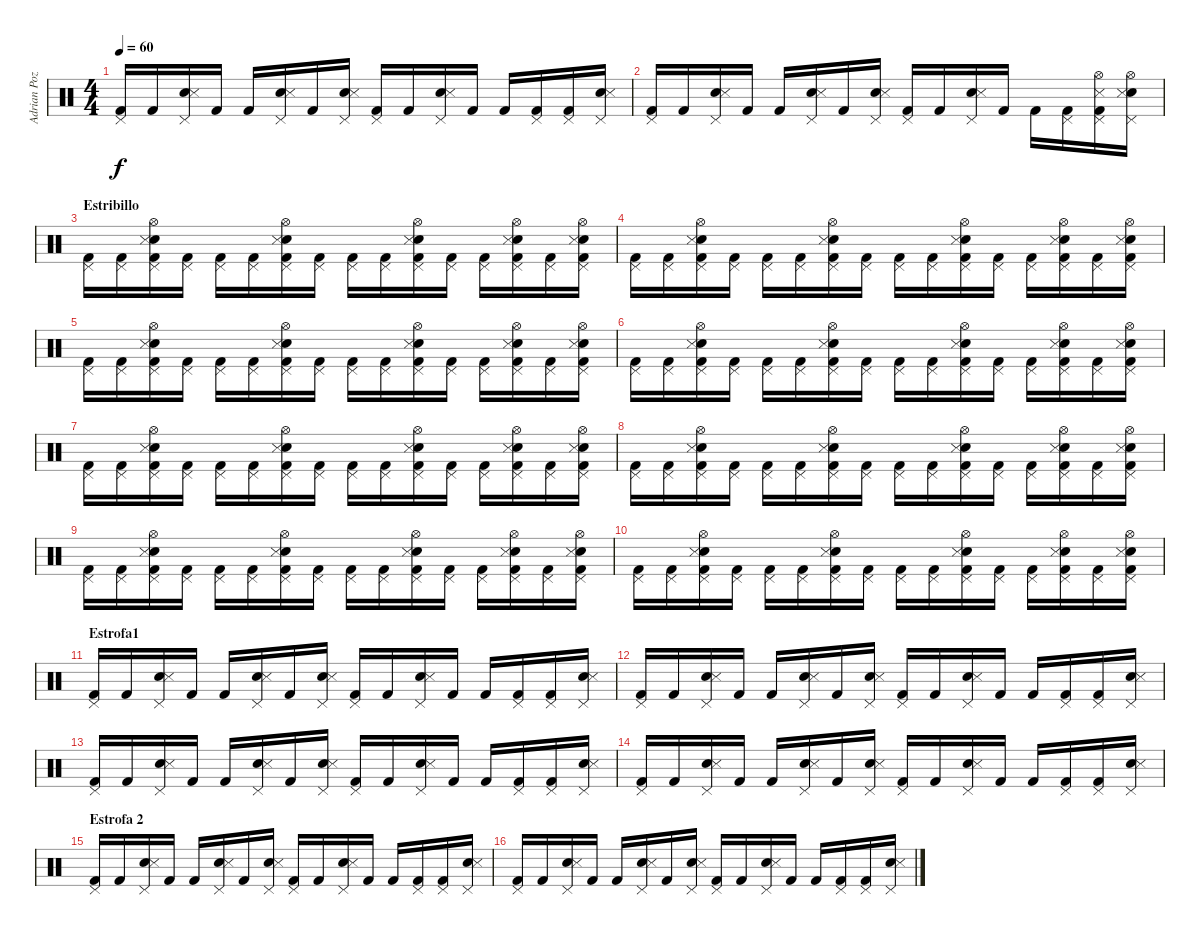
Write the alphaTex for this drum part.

\track ("Adrian Pozo" "Adrian Poz") {instrument percussion}
\staff {score}
\articulation defaults
\ts (4 4)
\tempo 60
\clef neutral
\ks c
("Kick (hit) 2" "Pedal Hi-Hat (hit)").16{dy f} "Kick (hit) 2".16 ("Snare (hit) 2" "Snare (side stick) 3" "Pedal Hi-Hat (hit)").16 "Kick (hit) 2".16 "Kick (hit) 2".16 ("Snare (hit) 2" "Snare (side stick) 3" "Pedal Hi-Hat (hit)").16 "Kick (hit) 2".16 ("Snare (hit) 2" "Snare (side stick) 3" "Pedal Hi-Hat (hit)").16 ("Kick (hit) 2" "Pedal Hi-Hat (hit)").16 "Kick (hit) 2".16 ("Snare (hit) 2" "Snare (side stick) 3" "Pedal Hi-Hat (hit)").16 "Kick (hit) 2".16 "Kick (hit) 2".16 ("Kick (hit) 2" "Pedal Hi-Hat (hit)").16 ("Kick (hit) 2" "Pedal Hi-Hat (hit)").16 ("Snare (hit) 2" "Snare (side stick) 3" "Pedal Hi-Hat (hit)").16 |
("Kick (hit) 2" "Pedal Hi-Hat (hit)").16 "Kick (hit) 2".16 ("Snare (hit) 2" "Snare (side stick) 3" "Pedal Hi-Hat (hit)").16 "Kick (hit) 2".16 "Kick (hit) 2".16 ("Snare (hit) 2" "Snare (side stick) 3" "Pedal Hi-Hat (hit)").16 "Kick (hit) 2".16 ("Snare (hit) 2" "Snare (side stick) 3" "Pedal Hi-Hat (hit)").16 ("Kick (hit) 2" "Pedal Hi-Hat (hit)").16 "Kick (hit) 2".16 ("Snare (hit) 2" "Snare (side stick) 3" "Pedal Hi-Hat (hit)").16 "Kick (hit) 2".16 "Kick (hit) 2".16 ("Kick (hit) 2" "Pedal Hi-Hat (hit)").16 ("Kick (hit) 2" "Snare (side stick) 3" "Hi-Hat (open)" "Pedal Hi-Hat (hit)").16 ("Snare (hit) 2" "Snare (side stick) 3" "Hi-Hat (open)" "Pedal Hi-Hat (hit)").16 |
\section ("" "Estribillo")
("Kick (hit) 2" "Pedal Hi-Hat (hit)").16 ("Kick (hit) 2" "Pedal Hi-Hat (hit)").16 ("Snare (hit) 2" "Kick (hit) 2" "Snare (side stick) 3" "Hi-Hat (open)" "Pedal Hi-Hat (hit)").16 ("Kick (hit) 2" "Pedal Hi-Hat (hit)").16 ("Kick (hit) 2" "Pedal Hi-Hat (hit)").16 ("Kick (hit) 2" "Pedal Hi-Hat (hit)").16 ("Snare (hit) 2" "Kick (hit) 2" "Snare (side stick) 3" "Hi-Hat (open)" "Pedal Hi-Hat (hit)").16 ("Kick (hit) 2" "Pedal Hi-Hat (hit)").16 ("Kick (hit) 2" "Pedal Hi-Hat (hit)").16 ("Kick (hit) 2" "Pedal Hi-Hat (hit)").16 ("Snare (hit) 2" "Kick (hit) 2" "Snare (side stick) 3" "Hi-Hat (open)" "Pedal Hi-Hat (hit)").16 ("Kick (hit) 2" "Pedal Hi-Hat (hit)").16 ("Kick (hit) 2" "Pedal Hi-Hat (hit)").16 ("Snare (hit) 2" "Kick (hit) 2" "Snare (side stick) 3" "Hi-Hat (open)" "Pedal Hi-Hat (hit)").16 ("Kick (hit) 2" "Pedal Hi-Hat (hit)").16 ("Snare (hit) 2" "Kick (hit) 2" "Snare (side stick) 3" "Hi-Hat (open)" "Pedal Hi-Hat (hit)").16 |
("Kick (hit) 2" "Pedal Hi-Hat (hit)").16 ("Kick (hit) 2" "Pedal Hi-Hat (hit)").16 ("Snare (hit) 2" "Kick (hit) 2" "Snare (side stick) 3" "Hi-Hat (open)" "Pedal Hi-Hat (hit)").16 ("Kick (hit) 2" "Pedal Hi-Hat (hit)").16 ("Kick (hit) 2" "Pedal Hi-Hat (hit)").16 ("Kick (hit) 2" "Pedal Hi-Hat (hit)").16 ("Snare (hit) 2" "Kick (hit) 2" "Snare (side stick) 3" "Hi-Hat (open)" "Pedal Hi-Hat (hit)").16 ("Kick (hit) 2" "Pedal Hi-Hat (hit)").16 ("Kick (hit) 2" "Pedal Hi-Hat (hit)").16 ("Kick (hit) 2" "Pedal Hi-Hat (hit)").16 ("Snare (hit) 2" "Kick (hit) 2" "Snare (side stick) 3" "Hi-Hat (open)" "Pedal Hi-Hat (hit)").16 ("Kick (hit) 2" "Pedal Hi-Hat (hit)").16 ("Kick (hit) 2" "Pedal Hi-Hat (hit)").16 ("Snare (hit) 2" "Kick (hit) 2" "Snare (side stick) 3" "Hi-Hat (open)" "Pedal Hi-Hat (hit)").16 ("Kick (hit) 2" "Pedal Hi-Hat (hit)").16 ("Snare (hit) 2" "Kick (hit) 2" "Snare (side stick) 3" "Hi-Hat (open)" "Pedal Hi-Hat (hit)").16 |
("Kick (hit) 2" "Pedal Hi-Hat (hit)").16 ("Kick (hit) 2" "Pedal Hi-Hat (hit)").16 ("Snare (hit) 2" "Kick (hit) 2" "Snare (side stick) 3" "Hi-Hat (open)" "Pedal Hi-Hat (hit)").16 ("Kick (hit) 2" "Pedal Hi-Hat (hit)").16 ("Kick (hit) 2" "Pedal Hi-Hat (hit)").16 ("Kick (hit) 2" "Pedal Hi-Hat (hit)").16 ("Snare (hit) 2" "Kick (hit) 2" "Snare (side stick) 3" "Hi-Hat (open)" "Pedal Hi-Hat (hit)").16 ("Kick (hit) 2" "Pedal Hi-Hat (hit)").16 ("Kick (hit) 2" "Pedal Hi-Hat (hit)").16 ("Kick (hit) 2" "Pedal Hi-Hat (hit)").16 ("Snare (hit) 2" "Kick (hit) 2" "Snare (side stick) 3" "Hi-Hat (open)" "Pedal Hi-Hat (hit)").16 ("Kick (hit) 2" "Pedal Hi-Hat (hit)").16 ("Kick (hit) 2" "Pedal Hi-Hat (hit)").16 ("Snare (hit) 2" "Kick (hit) 2" "Snare (side stick) 3" "Hi-Hat (open)" "Pedal Hi-Hat (hit)").16 ("Kick (hit) 2" "Pedal Hi-Hat (hit)").16 ("Snare (hit) 2" "Kick (hit) 2" "Snare (side stick) 3" "Hi-Hat (open)" "Pedal Hi-Hat (hit)").16 |
("Kick (hit) 2" "Pedal Hi-Hat (hit)").16 ("Kick (hit) 2" "Pedal Hi-Hat (hit)").16 ("Snare (hit) 2" "Kick (hit) 2" "Snare (side stick) 3" "Hi-Hat (open)" "Pedal Hi-Hat (hit)").16 ("Kick (hit) 2" "Pedal Hi-Hat (hit)").16 ("Kick (hit) 2" "Pedal Hi-Hat (hit)").16 ("Kick (hit) 2" "Pedal Hi-Hat (hit)").16 ("Snare (hit) 2" "Kick (hit) 2" "Snare (side stick) 3" "Hi-Hat (open)" "Pedal Hi-Hat (hit)").16 ("Kick (hit) 2" "Pedal Hi-Hat (hit)").16 ("Kick (hit) 2" "Pedal Hi-Hat (hit)").16 ("Kick (hit) 2" "Pedal Hi-Hat (hit)").16 ("Snare (hit) 2" "Kick (hit) 2" "Snare (side stick) 3" "Hi-Hat (open)" "Pedal Hi-Hat (hit)").16 ("Kick (hit) 2" "Pedal Hi-Hat (hit)").16 ("Kick (hit) 2" "Pedal Hi-Hat (hit)").16 ("Snare (hit) 2" "Kick (hit) 2" "Snare (side stick) 3" "Hi-Hat (open)" "Pedal Hi-Hat (hit)").16 ("Kick (hit) 2" "Pedal Hi-Hat (hit)").16 ("Snare (hit) 2" "Kick (hit) 2" "Snare (side stick) 3" "Hi-Hat (open)" "Pedal Hi-Hat (hit)").16 |
("Kick (hit) 2" "Pedal Hi-Hat (hit)").16 ("Kick (hit) 2" "Pedal Hi-Hat (hit)").16 ("Snare (hit) 2" "Kick (hit) 2" "Snare (side stick) 3" "Hi-Hat (open)" "Pedal Hi-Hat (hit)").16 ("Kick (hit) 2" "Pedal Hi-Hat (hit)").16 ("Kick (hit) 2" "Pedal Hi-Hat (hit)").16 ("Kick (hit) 2" "Pedal Hi-Hat (hit)").16 ("Snare (hit) 2" "Kick (hit) 2" "Snare (side stick) 3" "Hi-Hat (open)" "Pedal Hi-Hat (hit)").16 ("Kick (hit) 2" "Pedal Hi-Hat (hit)").16 ("Kick (hit) 2" "Pedal Hi-Hat (hit)").16 ("Kick (hit) 2" "Pedal Hi-Hat (hit)").16 ("Snare (hit) 2" "Kick (hit) 2" "Snare (side stick) 3" "Hi-Hat (open)" "Pedal Hi-Hat (hit)").16 ("Kick (hit) 2" "Pedal Hi-Hat (hit)").16 ("Kick (hit) 2" "Pedal Hi-Hat (hit)").16 ("Snare (hit) 2" "Kick (hit) 2" "Snare (side stick) 3" "Hi-Hat (open)" "Pedal Hi-Hat (hit)").16 ("Kick (hit) 2" "Pedal Hi-Hat (hit)").16 ("Snare (hit) 2" "Kick (hit) 2" "Snare (side stick) 3" "Hi-Hat (open)" "Pedal Hi-Hat (hit)").16 |
("Kick (hit) 2" "Pedal Hi-Hat (hit)").16 ("Kick (hit) 2" "Pedal Hi-Hat (hit)").16 ("Snare (hit) 2" "Kick (hit) 2" "Snare (side stick) 3" "Hi-Hat (open)" "Pedal Hi-Hat (hit)").16 ("Kick (hit) 2" "Pedal Hi-Hat (hit)").16 ("Kick (hit) 2" "Pedal Hi-Hat (hit)").16 ("Kick (hit) 2" "Pedal Hi-Hat (hit)").16 ("Snare (hit) 2" "Kick (hit) 2" "Snare (side stick) 3" "Hi-Hat (open)" "Pedal Hi-Hat (hit)").16 ("Kick (hit) 2" "Pedal Hi-Hat (hit)").16 ("Kick (hit) 2" "Pedal Hi-Hat (hit)").16 ("Kick (hit) 2" "Pedal Hi-Hat (hit)").16 ("Snare (hit) 2" "Kick (hit) 2" "Snare (side stick) 3" "Hi-Hat (open)" "Pedal Hi-Hat (hit)").16 ("Kick (hit) 2" "Pedal Hi-Hat (hit)").16 ("Kick (hit) 2" "Pedal Hi-Hat (hit)").16 ("Snare (hit) 2" "Kick (hit) 2" "Snare (side stick) 3" "Hi-Hat (open)" "Pedal Hi-Hat (hit)").16 ("Kick (hit) 2" "Pedal Hi-Hat (hit)").16 ("Snare (hit) 2" "Kick (hit) 2" "Snare (side stick) 3" "Hi-Hat (open)" "Pedal Hi-Hat (hit)").16 |
("Kick (hit) 2" "Pedal Hi-Hat (hit)").16 ("Kick (hit) 2" "Pedal Hi-Hat (hit)").16 ("Snare (hit) 2" "Kick (hit) 2" "Snare (side stick) 3" "Hi-Hat (open)" "Pedal Hi-Hat (hit)").16 ("Kick (hit) 2" "Pedal Hi-Hat (hit)").16 ("Kick (hit) 2" "Pedal Hi-Hat (hit)").16 ("Kick (hit) 2" "Pedal Hi-Hat (hit)").16 ("Snare (hit) 2" "Kick (hit) 2" "Snare (side stick) 3" "Hi-Hat (open)" "Pedal Hi-Hat (hit)").16 ("Kick (hit) 2" "Pedal Hi-Hat (hit)").16 ("Kick (hit) 2" "Pedal Hi-Hat (hit)").16 ("Kick (hit) 2" "Pedal Hi-Hat (hit)").16 ("Snare (hit) 2" "Kick (hit) 2" "Snare (side stick) 3" "Hi-Hat (open)" "Pedal Hi-Hat (hit)").16 ("Kick (hit) 2" "Pedal Hi-Hat (hit)").16 ("Kick (hit) 2" "Pedal Hi-Hat (hit)").16 ("Snare (hit) 2" "Kick (hit) 2" "Snare (side stick) 3" "Hi-Hat (open)" "Pedal Hi-Hat (hit)").16 ("Kick (hit) 2" "Pedal Hi-Hat (hit)").16 ("Snare (hit) 2" "Kick (hit) 2" "Snare (side stick) 3" "Hi-Hat (open)" "Pedal Hi-Hat (hit)").16 |
("Kick (hit) 2" "Pedal Hi-Hat (hit)").16 ("Kick (hit) 2" "Pedal Hi-Hat (hit)").16 ("Snare (hit) 2" "Kick (hit) 2" "Snare (side stick) 3" "Hi-Hat (open)" "Pedal Hi-Hat (hit)").16 ("Kick (hit) 2" "Pedal Hi-Hat (hit)").16 ("Kick (hit) 2" "Pedal Hi-Hat (hit)").16 ("Kick (hit) 2" "Pedal Hi-Hat (hit)").16 ("Snare (hit) 2" "Kick (hit) 2" "Snare (side stick) 3" "Hi-Hat (open)" "Pedal Hi-Hat (hit)").16 ("Kick (hit) 2" "Pedal Hi-Hat (hit)").16 ("Kick (hit) 2" "Pedal Hi-Hat (hit)").16 ("Kick (hit) 2" "Pedal Hi-Hat (hit)").16 ("Snare (hit) 2" "Kick (hit) 2" "Snare (side stick) 3" "Hi-Hat (open)" "Pedal Hi-Hat (hit)").16 ("Kick (hit) 2" "Pedal Hi-Hat (hit)").16 ("Kick (hit) 2" "Pedal Hi-Hat (hit)").16 ("Snare (hit) 2" "Kick (hit) 2" "Snare (side stick) 3" "Hi-Hat (open)" "Pedal Hi-Hat (hit)").16 ("Kick (hit) 2" "Pedal Hi-Hat (hit)").16 ("Snare (hit) 2" "Kick (hit) 2" "Snare (side stick) 3" "Hi-Hat (open)" "Pedal Hi-Hat (hit)").16 |
\section ("" "Estrofa1")
("Kick (hit) 2" "Pedal Hi-Hat (hit)").16 "Kick (hit) 2".16 ("Snare (hit) 2" "Snare (side stick) 3" "Pedal Hi-Hat (hit)").16 "Kick (hit) 2".16 "Kick (hit) 2".16 ("Snare (hit) 2" "Snare (side stick) 3" "Pedal Hi-Hat (hit)").16 "Kick (hit) 2".16 ("Snare (hit) 2" "Snare (side stick) 3" "Pedal Hi-Hat (hit)").16 ("Kick (hit) 2" "Pedal Hi-Hat (hit)").16 "Kick (hit) 2".16 ("Snare (hit) 2" "Snare (side stick) 3" "Pedal Hi-Hat (hit)").16 "Kick (hit) 2".16 "Kick (hit) 2".16 ("Kick (hit) 2" "Pedal Hi-Hat (hit)").16 ("Kick (hit) 2" "Pedal Hi-Hat (hit)").16 ("Snare (hit) 2" "Snare (side stick) 3" "Pedal Hi-Hat (hit)").16 |
("Kick (hit) 2" "Pedal Hi-Hat (hit)").16 "Kick (hit) 2".16 ("Snare (hit) 2" "Snare (side stick) 3" "Pedal Hi-Hat (hit)").16 "Kick (hit) 2".16 "Kick (hit) 2".16 ("Snare (hit) 2" "Snare (side stick) 3" "Pedal Hi-Hat (hit)").16 "Kick (hit) 2".16 ("Snare (hit) 2" "Snare (side stick) 3" "Pedal Hi-Hat (hit)").16 ("Kick (hit) 2" "Pedal Hi-Hat (hit)").16 "Kick (hit) 2".16 ("Snare (hit) 2" "Snare (side stick) 3" "Pedal Hi-Hat (hit)").16 "Kick (hit) 2".16 "Kick (hit) 2".16 ("Kick (hit) 2" "Pedal Hi-Hat (hit)").16 ("Kick (hit) 2" "Pedal Hi-Hat (hit)").16 ("Snare (hit) 2" "Snare (side stick) 3" "Pedal Hi-Hat (hit)").16 |
("Kick (hit) 2" "Pedal Hi-Hat (hit)").16 "Kick (hit) 2".16 ("Snare (hit) 2" "Snare (side stick) 3" "Pedal Hi-Hat (hit)").16 "Kick (hit) 2".16 "Kick (hit) 2".16 ("Snare (hit) 2" "Snare (side stick) 3" "Pedal Hi-Hat (hit)").16 "Kick (hit) 2".16 ("Snare (hit) 2" "Snare (side stick) 3" "Pedal Hi-Hat (hit)").16 ("Kick (hit) 2" "Pedal Hi-Hat (hit)").16 "Kick (hit) 2".16 ("Snare (hit) 2" "Snare (side stick) 3" "Pedal Hi-Hat (hit)").16 "Kick (hit) 2".16 "Kick (hit) 2".16 ("Kick (hit) 2" "Pedal Hi-Hat (hit)").16 ("Kick (hit) 2" "Pedal Hi-Hat (hit)").16 ("Snare (hit) 2" "Snare (side stick) 3" "Pedal Hi-Hat (hit)").16 |
("Kick (hit) 2" "Pedal Hi-Hat (hit)").16 "Kick (hit) 2".16 ("Snare (hit) 2" "Snare (side stick) 3" "Pedal Hi-Hat (hit)").16 "Kick (hit) 2".16 "Kick (hit) 2".16 ("Snare (hit) 2" "Snare (side stick) 3" "Pedal Hi-Hat (hit)").16 "Kick (hit) 2".16 ("Snare (hit) 2" "Snare (side stick) 3" "Pedal Hi-Hat (hit)").16 ("Kick (hit) 2" "Pedal Hi-Hat (hit)").16 "Kick (hit) 2".16 ("Snare (hit) 2" "Snare (side stick) 3" "Pedal Hi-Hat (hit)").16 "Kick (hit) 2".16 "Kick (hit) 2".16 ("Kick (hit) 2" "Pedal Hi-Hat (hit)").16 ("Kick (hit) 2" "Pedal Hi-Hat (hit)").16 ("Snare (hit) 2" "Snare (side stick) 3" "Pedal Hi-Hat (hit)").16 |
\section ("" "Estrofa 2")
("Kick (hit) 2" "Pedal Hi-Hat (hit)").16 "Kick (hit) 2".16 ("Snare (hit) 2" "Snare (side stick) 3" "Pedal Hi-Hat (hit)").16 "Kick (hit) 2".16 "Kick (hit) 2".16 ("Snare (hit) 2" "Snare (side stick) 3" "Pedal Hi-Hat (hit)").16 "Kick (hit) 2".16 ("Snare (hit) 2" "Snare (side stick) 3" "Pedal Hi-Hat (hit)").16 ("Kick (hit) 2" "Pedal Hi-Hat (hit)").16 "Kick (hit) 2".16 ("Snare (hit) 2" "Snare (side stick) 3" "Pedal Hi-Hat (hit)").16 "Kick (hit) 2".16 "Kick (hit) 2".16 ("Kick (hit) 2" "Pedal Hi-Hat (hit)").16 ("Kick (hit) 2" "Pedal Hi-Hat (hit)").16 ("Snare (hit) 2" "Snare (side stick) 3" "Pedal Hi-Hat (hit)").16 |
("Kick (hit) 2" "Pedal Hi-Hat (hit)").16 "Kick (hit) 2".16 ("Snare (hit) 2" "Snare (side stick) 3" "Pedal Hi-Hat (hit)").16 "Kick (hit) 2".16 "Kick (hit) 2".16 ("Snare (hit) 2" "Snare (side stick) 3" "Pedal Hi-Hat (hit)").16 "Kick (hit) 2".16 ("Snare (hit) 2" "Snare (side stick) 3" "Pedal Hi-Hat (hit)").16 ("Kick (hit) 2" "Pedal Hi-Hat (hit)").16 "Kick (hit) 2".16 ("Snare (hit) 2" "Snare (side stick) 3" "Pedal Hi-Hat (hit)").16 "Kick (hit) 2".16 "Kick (hit) 2".16 ("Kick (hit) 2" "Pedal Hi-Hat (hit)").16 ("Kick (hit) 2" "Pedal Hi-Hat (hit)").16 ("Snare (hit) 2" "Snare (side stick) 3" "Pedal Hi-Hat (hit)").16
